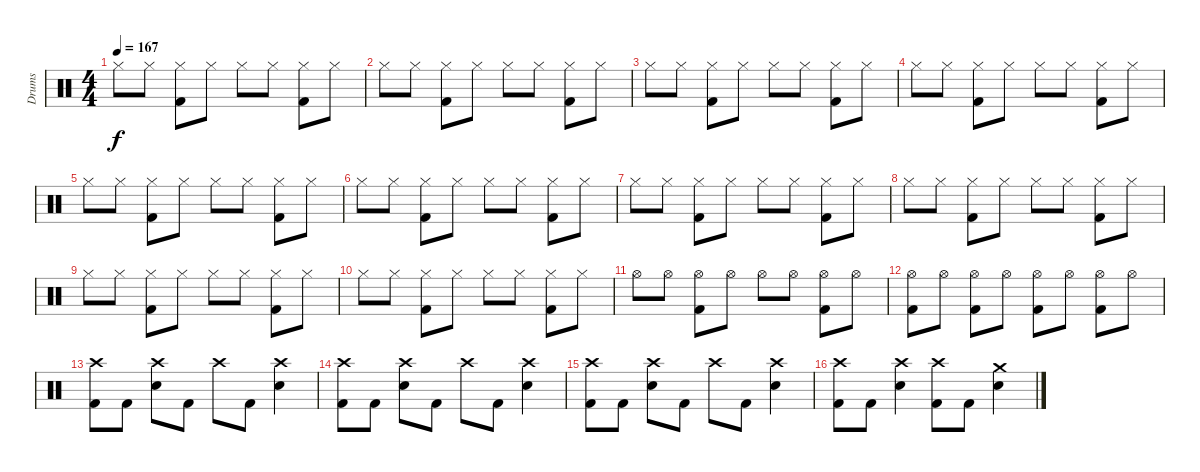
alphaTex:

\track ("Drums" "Drums") {instrument percussion}
\staff {score}
\articulation defaults
\ts (4 4)
\tempo 167
\clef neutral
\ks c "Hi-Hat (closed)".8{dy f} "Hi-Hat (closed)".8
("Hi-Hat (closed)" "Kick (hit) 2").8 "Hi-Hat (closed)".8 "Hi-Hat (closed)".8 "Hi-Hat (closed)".8 ("Hi-Hat (closed)" "Kick (hit) 2").8 "Hi-Hat (closed)".8 |
"Hi-Hat (closed)".8 "Hi-Hat (closed)".8 ("Hi-Hat (closed)" "Kick (hit) 2").8 "Hi-Hat (closed)".8 "Hi-Hat (closed)".8 "Hi-Hat (closed)".8 ("Hi-Hat (closed)" "Kick (hit) 2").8 "Hi-Hat (closed)".8 |
"Hi-Hat (closed)".8 "Hi-Hat (closed)".8 ("Hi-Hat (closed)" "Kick (hit) 2").8 "Hi-Hat (closed)".8 "Hi-Hat (closed)".8 "Hi-Hat (closed)".8 ("Hi-Hat (closed)" "Kick (hit) 2").8 "Hi-Hat (closed)".8 |
"Hi-Hat (closed)".8 "Hi-Hat (closed)".8 ("Hi-Hat (closed)" "Kick (hit) 2").8 "Hi-Hat (closed)".8 "Hi-Hat (closed)".8 "Hi-Hat (closed)".8 ("Hi-Hat (closed)" "Kick (hit) 2").8 "Hi-Hat (closed)".8 |
"Hi-Hat (closed)".8 "Hi-Hat (closed)".8 ("Hi-Hat (closed)" "Kick (hit) 2").8 "Hi-Hat (closed)".8 "Hi-Hat (closed)".8 "Hi-Hat (closed)".8 ("Hi-Hat (closed)" "Kick (hit) 2").8 "Hi-Hat (closed)".8 |
"Hi-Hat (closed)".8 "Hi-Hat (closed)".8 ("Hi-Hat (closed)" "Kick (hit) 2").8 "Hi-Hat (closed)".8 "Hi-Hat (closed)".8 "Hi-Hat (closed)".8 ("Hi-Hat (closed)" "Kick (hit) 2").8 "Hi-Hat (closed)".8 |
"Hi-Hat (closed)".8 "Hi-Hat (closed)".8 ("Hi-Hat (closed)" "Kick (hit) 2").8 "Hi-Hat (closed)".8 "Hi-Hat (closed)".8 "Hi-Hat (closed)".8 ("Hi-Hat (closed)" "Kick (hit) 2").8 "Hi-Hat (closed)".8 |
"Hi-Hat (closed)".8 "Hi-Hat (closed)".8 ("Hi-Hat (closed)" "Kick (hit) 2").8 "Hi-Hat (closed)".8 "Hi-Hat (closed)".8 "Hi-Hat (closed)".8 ("Hi-Hat (closed)" "Kick (hit) 2").8 "Hi-Hat (closed)".8 |
"Hi-Hat (closed)".8 "Hi-Hat (closed)".8 ("Hi-Hat (closed)" "Kick (hit) 2").8 "Hi-Hat (closed)".8 "Hi-Hat (closed)".8 "Hi-Hat (closed)".8 ("Hi-Hat (closed)" "Kick (hit) 2").8 "Hi-Hat (closed)".8 |
"Hi-Hat (closed)".8 "Hi-Hat (closed)".8 ("Hi-Hat (closed)" "Kick (hit) 2").8 "Hi-Hat (closed)".8 "Hi-Hat (closed)".8 "Hi-Hat (closed)".8 ("Hi-Hat (closed)" "Kick (hit) 2").8 "Hi-Hat (closed)".8 |
"Hi-Hat (open)".8 "Hi-Hat (open)".8 ("Hi-Hat (open)" "Kick (hit) 2").8 "Hi-Hat (open)".8 "Hi-Hat (open)".8 "Hi-Hat (open)".8 ("Hi-Hat (open)" "Kick (hit) 2").8 "Hi-Hat (open)".8 |
("Hi-Hat (open)" "Kick (hit) 2").8 "Hi-Hat (open)".8 ("Hi-Hat (open)" "Kick (hit) 2").8 "Hi-Hat (open)".8 ("Hi-Hat (open)" "Kick (hit) 2").8 "Hi-Hat (open)".8 ("Hi-Hat (open)" "Kick (hit) 2").8 "Hi-Hat (open)".8 |
("Crash high (hit)" "Kick (hit) 2").8 "Kick (hit) 2".8 ("Crash high (hit)" "Snare (hit) 2").8 "Kick (hit) 2".8 "Crash high (hit)".8 "Kick (hit) 2".8 ("Crash high (hit)" "Snare (hit) 2").4 |
("Crash high (hit)" "Kick (hit) 2").8 "Kick (hit) 2".8 ("Crash high (hit)" "Snare (hit) 2").8 "Kick (hit) 2".8 "Crash high (hit)".8 "Kick (hit) 2".8 ("Crash high (hit)" "Snare (hit) 2").4 |
("Crash high (hit)" "Kick (hit) 2").8 "Kick (hit) 2".8 ("Crash high (hit)" "Snare (hit) 2").8 "Kick (hit) 2".8 "Crash high (hit)".8 "Kick (hit) 2".8 ("Crash high (hit)" "Snare (hit) 2").4 |
("Crash high (hit)" "Kick (hit) 2").8 "Kick (hit) 2".8 ("Crash high (hit)" "Snare (hit) 2").4 ("Crash high (hit)" "Kick (hit) 2").8 "Kick (hit) 2".8 ("Crash medium (hit)" "Snare (hit) 2").4
